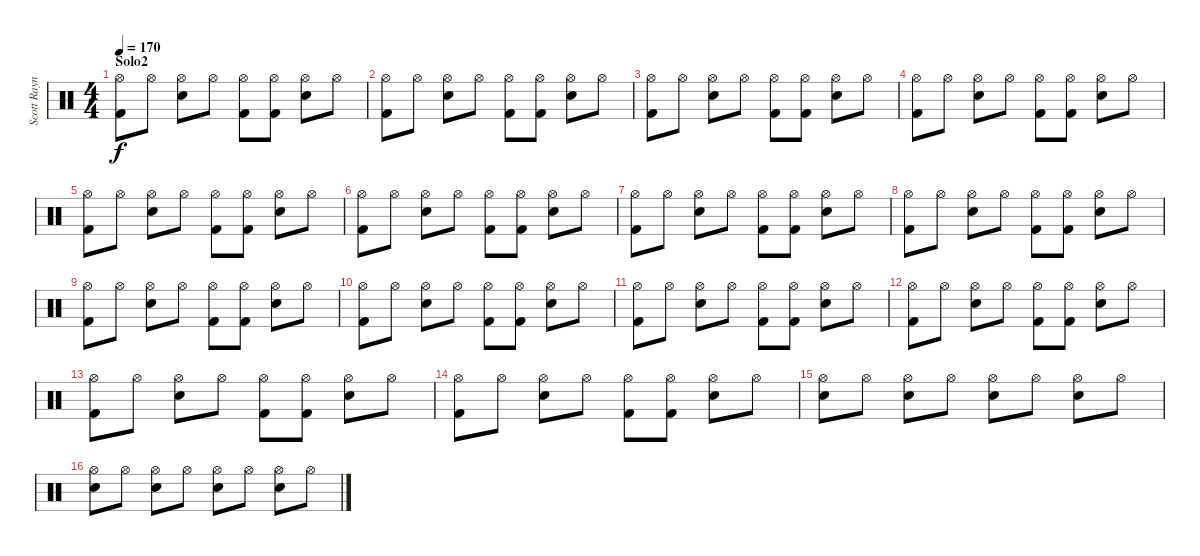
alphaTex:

\track ("Scott Raynor" "Scott Rayn") {instrument percussion}
\staff {score}
\articulation defaults
\ts (4 4)
\section ("" "Solo2")
\tempo 170
\clef neutral
\ks c
("Hi-Hat (open)" "Kick (hit) 2").8{dy f} "Hi-Hat (open)".8 ("Hi-Hat (open)" "Snare (hit) 2").8 "Hi-Hat (open)".8 ("Hi-Hat (open)" "Kick (hit) 2").8 ("Hi-Hat (open)" "Kick (hit) 2").8 ("Hi-Hat (open)" "Snare (hit) 2").8 "Hi-Hat (open)".8 |
("Hi-Hat (open)" "Kick (hit) 2").8 "Hi-Hat (open)".8 ("Hi-Hat (open)" "Snare (hit) 2").8 "Hi-Hat (open)".8 ("Hi-Hat (open)" "Kick (hit) 2").8 ("Hi-Hat (open)" "Kick (hit) 2").8 ("Hi-Hat (open)" "Snare (hit) 2").8 "Hi-Hat (open)".8 |
("Hi-Hat (open)" "Kick (hit) 2").8 "Hi-Hat (open)".8 ("Hi-Hat (open)" "Snare (hit) 2").8 "Hi-Hat (open)".8 ("Hi-Hat (open)" "Kick (hit) 2").8 ("Hi-Hat (open)" "Kick (hit) 2").8 ("Hi-Hat (open)" "Snare (hit) 2").8 "Hi-Hat (open)".8 |
("Hi-Hat (open)" "Kick (hit) 2").8 "Hi-Hat (open)".8 ("Hi-Hat (open)" "Snare (hit) 2").8 "Hi-Hat (open)".8 ("Hi-Hat (open)" "Kick (hit) 2").8 ("Hi-Hat (open)" "Kick (hit) 2").8 ("Hi-Hat (open)" "Snare (hit) 2").8 "Hi-Hat (open)".8 |
("Hi-Hat (open)" "Kick (hit) 2").8 "Hi-Hat (open)".8 ("Hi-Hat (open)" "Snare (hit) 2").8 "Hi-Hat (open)".8 ("Hi-Hat (open)" "Kick (hit) 2").8 ("Hi-Hat (open)" "Kick (hit) 2").8 ("Hi-Hat (open)" "Snare (hit) 2").8 "Hi-Hat (open)".8 |
("Hi-Hat (open)" "Kick (hit) 2").8 "Hi-Hat (open)".8 ("Hi-Hat (open)" "Snare (hit) 2").8 "Hi-Hat (open)".8 ("Hi-Hat (open)" "Kick (hit) 2").8 ("Hi-Hat (open)" "Kick (hit) 2").8 ("Hi-Hat (open)" "Snare (hit) 2").8 "Hi-Hat (open)".8 |
("Hi-Hat (open)" "Kick (hit) 2").8 "Hi-Hat (open)".8 ("Hi-Hat (open)" "Snare (hit) 2").8 "Hi-Hat (open)".8 ("Hi-Hat (open)" "Kick (hit) 2").8 ("Hi-Hat (open)" "Kick (hit) 2").8 ("Hi-Hat (open)" "Snare (hit) 2").8 "Hi-Hat (open)".8 |
("Hi-Hat (open)" "Kick (hit) 2").8 "Hi-Hat (open)".8 ("Hi-Hat (open)" "Snare (hit) 2").8 "Hi-Hat (open)".8 ("Hi-Hat (open)" "Kick (hit) 2").8 ("Hi-Hat (open)" "Kick (hit) 2").8 ("Hi-Hat (open)" "Snare (hit) 2").8 "Hi-Hat (open)".8 |
("Hi-Hat (open)" "Kick (hit) 2").8 "Hi-Hat (open)".8 ("Hi-Hat (open)" "Snare (hit) 2").8 "Hi-Hat (open)".8 ("Hi-Hat (open)" "Kick (hit) 2").8 ("Hi-Hat (open)" "Kick (hit) 2").8 ("Hi-Hat (open)" "Snare (hit) 2").8 "Hi-Hat (open)".8 |
("Hi-Hat (open)" "Kick (hit) 2").8 "Hi-Hat (open)".8 ("Hi-Hat (open)" "Snare (hit) 2").8 "Hi-Hat (open)".8 ("Hi-Hat (open)" "Kick (hit) 2").8 ("Hi-Hat (open)" "Kick (hit) 2").8 ("Hi-Hat (open)" "Snare (hit) 2").8 "Hi-Hat (open)".8 |
("Hi-Hat (open)" "Kick (hit) 2").8 "Hi-Hat (open)".8 ("Hi-Hat (open)" "Snare (hit) 2").8 "Hi-Hat (open)".8 ("Hi-Hat (open)" "Kick (hit) 2").8 ("Hi-Hat (open)" "Kick (hit) 2").8 ("Hi-Hat (open)" "Snare (hit) 2").8 "Hi-Hat (open)".8 |
("Hi-Hat (open)" "Kick (hit) 2").8 "Hi-Hat (open)".8 ("Hi-Hat (open)" "Snare (hit) 2").8 "Hi-Hat (open)".8 ("Hi-Hat (open)" "Kick (hit) 2").8 ("Hi-Hat (open)" "Kick (hit) 2").8 ("Hi-Hat (open)" "Snare (hit) 2").8 "Hi-Hat (open)".8 |
("Hi-Hat (open)" "Kick (hit) 2").8 "Hi-Hat (open)".8 ("Hi-Hat (open)" "Snare (hit) 2").8 "Hi-Hat (open)".8 ("Hi-Hat (open)" "Kick (hit) 2").8 ("Hi-Hat (open)" "Kick (hit) 2").8 ("Hi-Hat (open)" "Snare (hit) 2").8 "Hi-Hat (open)".8 |
("Hi-Hat (open)" "Kick (hit) 2").8 "Hi-Hat (open)".8 ("Hi-Hat (open)" "Snare (hit) 2").8 "Hi-Hat (open)".8 ("Hi-Hat (open)" "Kick (hit) 2").8 ("Hi-Hat (open)" "Kick (hit) 2").8 ("Hi-Hat (open)" "Snare (hit) 2").8 "Hi-Hat (open)".8 |
("Hi-Hat (open)" "Snare (hit) 2").8 "Hi-Hat (open)".8 ("Hi-Hat (open)" "Snare (hit) 2").8 "Hi-Hat (open)".8 ("Hi-Hat (open)" "Snare (hit) 2").8 "Hi-Hat (open)".8 ("Hi-Hat (open)" "Snare (hit) 2").8 "Hi-Hat (open)".8 |
("Hi-Hat (open)" "Snare (hit) 2").8 "Hi-Hat (open)".8 ("Hi-Hat (open)" "Snare (hit) 2").8 "Hi-Hat (open)".8 ("Hi-Hat (open)" "Snare (hit) 2").8 "Hi-Hat (open)".8 ("Hi-Hat (open)" "Snare (hit) 2").8 "Hi-Hat (open)".8
